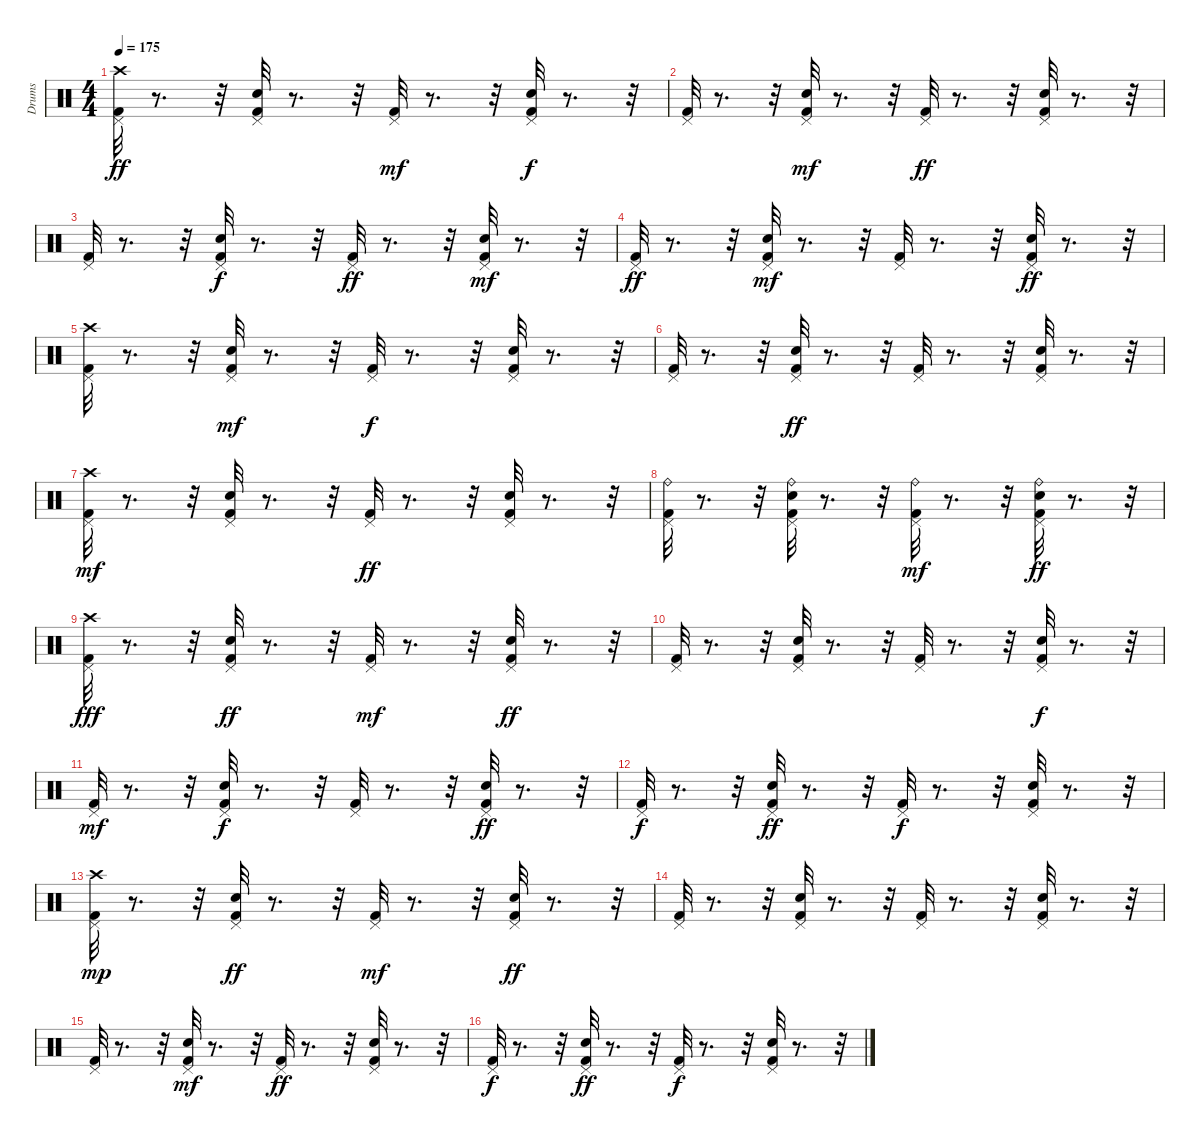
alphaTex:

\track ("Drums" "Drums") {instrument percussion}
\staff {score}
\articulation defaults
\ts (4 4)
\tempo 175
\clef neutral
\ks c
("Crash high (hit)" "Kick (hit) 2" "Pedal Hi-Hat (hit)").32{dy ff} r.8{d} r.32 ("Kick (hit) 2" "Pedal Hi-Hat (hit)" "Snare (hit) 2").32 r.8{d} r.32 ("Pedal Hi-Hat (hit)" "Kick (hit) 2").32{dy mf} r.8{d} r.32 ("Kick (hit) 2" "Pedal Hi-Hat (hit)" "Snare (hit) 2").32{dy f} r.8{d} r.32 |
("Pedal Hi-Hat (hit)" "Kick (hit) 2").32 r.8{d} r.32 ("Snare (hit) 2" "Pedal Hi-Hat (hit)" "Kick (hit) 2").32{dy mf} r.8{d} r.32 ("Pedal Hi-Hat (hit)" "Kick (hit) 2").32{dy ff} r.8{d} r.32 ("Pedal Hi-Hat (hit)" "Snare (hit) 2" "Kick (hit) 2").32 r.8{d} r.32 |
("Kick (hit) 2" "Pedal Hi-Hat (hit)").32 r.8{d} r.32 ("Kick (hit) 2" "Snare (hit) 2" "Pedal Hi-Hat (hit)").32{dy f} r.8{d} r.32 ("Kick (hit) 2" "Pedal Hi-Hat (hit)").32{dy ff} r.8{d} r.32 ("Kick (hit) 2" "Snare (hit) 2" "Pedal Hi-Hat (hit)").32{dy mf} r.8{d} r.32 |
("Kick (hit) 2" "Pedal Hi-Hat (hit)").32{dy ff} r.8{d} r.32 ("Pedal Hi-Hat (hit)" "Kick (hit) 2" "Snare (hit) 2").32{dy mf} r.8{d} r.32 ("Kick (hit) 2" "Pedal Hi-Hat (hit)").32 r.8{d} r.32 ("Kick (hit) 2" "Snare (hit) 2" "Pedal Hi-Hat (hit)").32{dy ff} r.8{d} r.32 |
("Crash high (hit)" "Pedal Hi-Hat (hit)" "Kick (hit) 2").32 r.8{d} r.32 ("Kick (hit) 2" "Pedal Hi-Hat (hit)" "Snare (hit) 2").32{dy mf} r.8{d} r.32 ("Kick (hit) 2" "Pedal Hi-Hat (hit)").32{dy f} r.8{d} r.32 ("Pedal Hi-Hat (hit)" "Kick (hit) 2" "Snare (hit) 2").32 r.8{d} r.32 |
("Pedal Hi-Hat (hit)" "Kick (hit) 2").32 r.8{d} r.32 ("Snare (hit) 2" "Kick (hit) 2" "Pedal Hi-Hat (hit)").32{dy ff} r.8{d} r.32 ("Kick (hit) 2" "Pedal Hi-Hat (hit)").32 r.8{d} r.32 ("Kick (hit) 2" "Snare (hit) 2" "Pedal Hi-Hat (hit)").32 r.8{d} r.32 |
("Crash high (hit)" "Pedal Hi-Hat (hit)" "Kick (hit) 2").32{dy mf} r.8{d} r.32 ("Pedal Hi-Hat (hit)" "Kick (hit) 2" "Snare (hit) 2").32 r.8{d} r.32 ("Pedal Hi-Hat (hit)" "Kick (hit) 2").32{dy ff} r.8{d} r.32 ("Pedal Hi-Hat (hit)" "Kick (hit) 2" "Snare (hit) 2").32 r.8{d} r.32 |
("Pedal Hi-Hat (hit)" "Kick (hit) 2" "Ride (bell)").32 r.8{d} r.32 ("Ride (bell)" "Pedal Hi-Hat (hit)" "Snare (hit) 2" "Kick (hit) 2").32 r.8{d} r.32 ("Kick (hit) 2" "Pedal Hi-Hat (hit)" "Ride (bell)").32{dy mf} r.8{d} r.32 ("Ride (bell)" "Pedal Hi-Hat (hit)" "Kick (hit) 2" "Snare (hit) 2").32{dy ff} r.8{d} r.32 |
("Crash high (hit)" "Kick (hit) 2" "Pedal Hi-Hat (hit)").32{dy fff} r.8{d} r.32 ("Kick (hit) 2" "Pedal Hi-Hat (hit)" "Snare (hit) 2").32{dy ff} r.8{d} r.32 ("Kick (hit) 2" "Pedal Hi-Hat (hit)").32{dy mf} r.8{d} r.32 ("Pedal Hi-Hat (hit)" "Snare (hit) 2" "Kick (hit) 2").32{dy ff} r.8{d} r.32 |
("Kick (hit) 2" "Pedal Hi-Hat (hit)").32 r.8{d} r.32 ("Kick (hit) 2" "Pedal Hi-Hat (hit)" "Snare (hit) 2").32 r.8{d} r.32 ("Kick (hit) 2" "Pedal Hi-Hat (hit)").32 r.8{d} r.32 ("Pedal Hi-Hat (hit)" "Snare (hit) 2" "Kick (hit) 2").32{dy f} r.8{d} r.32 |
("Kick (hit) 2" "Pedal Hi-Hat (hit)").32{dy mf} r.8{d} r.32 ("Snare (hit) 2" "Kick (hit) 2" "Pedal Hi-Hat (hit)").32{dy f} r.8{d} r.32 ("Kick (hit) 2" "Pedal Hi-Hat (hit)").32 r.8{d} r.32 ("Pedal Hi-Hat (hit)" "Kick (hit) 2" "Snare (hit) 2").32{dy ff} r.8{d} r.32 |
("Kick (hit) 2" "Pedal Hi-Hat (hit)").32{dy f} r.8{d} r.32 ("Pedal Hi-Hat (hit)" "Snare (hit) 2" "Kick (hit) 2").32{dy ff} r.8{d} r.32 ("Pedal Hi-Hat (hit)" "Kick (hit) 2").32{dy f} r.8{d} r.32 ("Snare (hit) 2" "Kick (hit) 2" "Pedal Hi-Hat (hit)").32 r.8{d} r.32 |
("Crash high (hit)" "Kick (hit) 2" "Pedal Hi-Hat (hit)").32{dy mp} r.8{d} r.32 ("Kick (hit) 2" "Pedal Hi-Hat (hit)" "Snare (hit) 2").32{dy ff} r.8{d} r.32 ("Pedal Hi-Hat (hit)" "Kick (hit) 2").32{dy mf} r.8{d} r.32 ("Kick (hit) 2" "Pedal Hi-Hat (hit)" "Snare (hit) 2").32{dy ff} r.8{d} r.32 |
("Kick (hit) 2" "Pedal Hi-Hat (hit)").32 r.8{d} r.32 ("Kick (hit) 2" "Pedal Hi-Hat (hit)" "Snare (hit) 2").32 r.8{d} r.32 ("Pedal Hi-Hat (hit)" "Kick (hit) 2").32 r.8{d} r.32 ("Pedal Hi-Hat (hit)" "Snare (hit) 2" "Kick (hit) 2").32 r.8{d} r.32 |
("Pedal Hi-Hat (hit)" "Kick (hit) 2").32 r.8{d} r.32 ("Snare (hit) 2" "Kick (hit) 2" "Pedal Hi-Hat (hit)").32{dy mf} r.8{d} r.32 ("Pedal Hi-Hat (hit)" "Kick (hit) 2").32{dy ff} r.8{d} r.32 ("Pedal Hi-Hat (hit)" "Snare (hit) 2" "Kick (hit) 2").32 r.8{d} r.32 |
("Kick (hit) 2" "Pedal Hi-Hat (hit)").32{dy f} r.8{d} r.32 ("Kick (hit) 2" "Pedal Hi-Hat (hit)" "Snare (hit) 2").32{dy ff} r.8{d} r.32 ("Pedal Hi-Hat (hit)" "Kick (hit) 2").32{dy f} r.8{d} r.32 ("Pedal Hi-Hat (hit)" "Snare (hit) 2" "Kick (hit) 2").32 r.8{d} r.32
